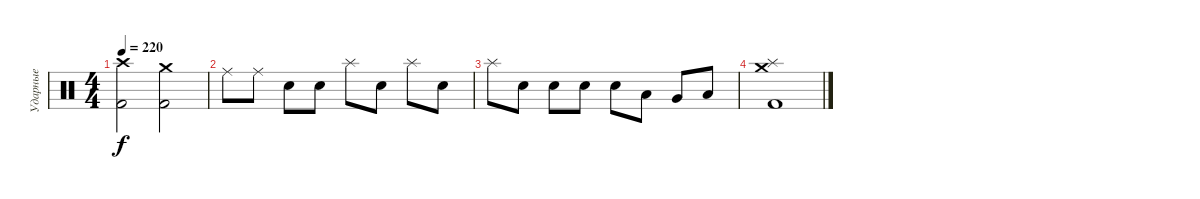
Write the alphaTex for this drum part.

\track ("Ударные" "Ударные") {instrument percussion}
\staff {score}
\articulation defaults
\ts (4 4)
\tempo 220
\clef neutral
\ks c
("Crash high (hit)" "Kick (hit) 2").2{dy f} ("Crash medium (hit)" "Kick (hit) 2").2 |
"Ride (middle)".8 "Ride (middle)".8 "Snare (hit) 2".8 "Snare (hit) 2".8 "Splash (hit)".8 "Snare (hit) 2".8 "Splash (hit)".8 "Snare (hit) 2".8 |
"Splash (hit)".8 "Snare (hit) 2".8 "Snare (hit) 2".8 "Snare (hit) 2".8 "Snare (hit) 2".8 "Low Tom (hit)".8 "Very Low Tom (hit)".8 "Low Floor Tom (hit)".8 |
("Crash medium (hit)" "Splash (hit)" "Kick (hit) 2").1
